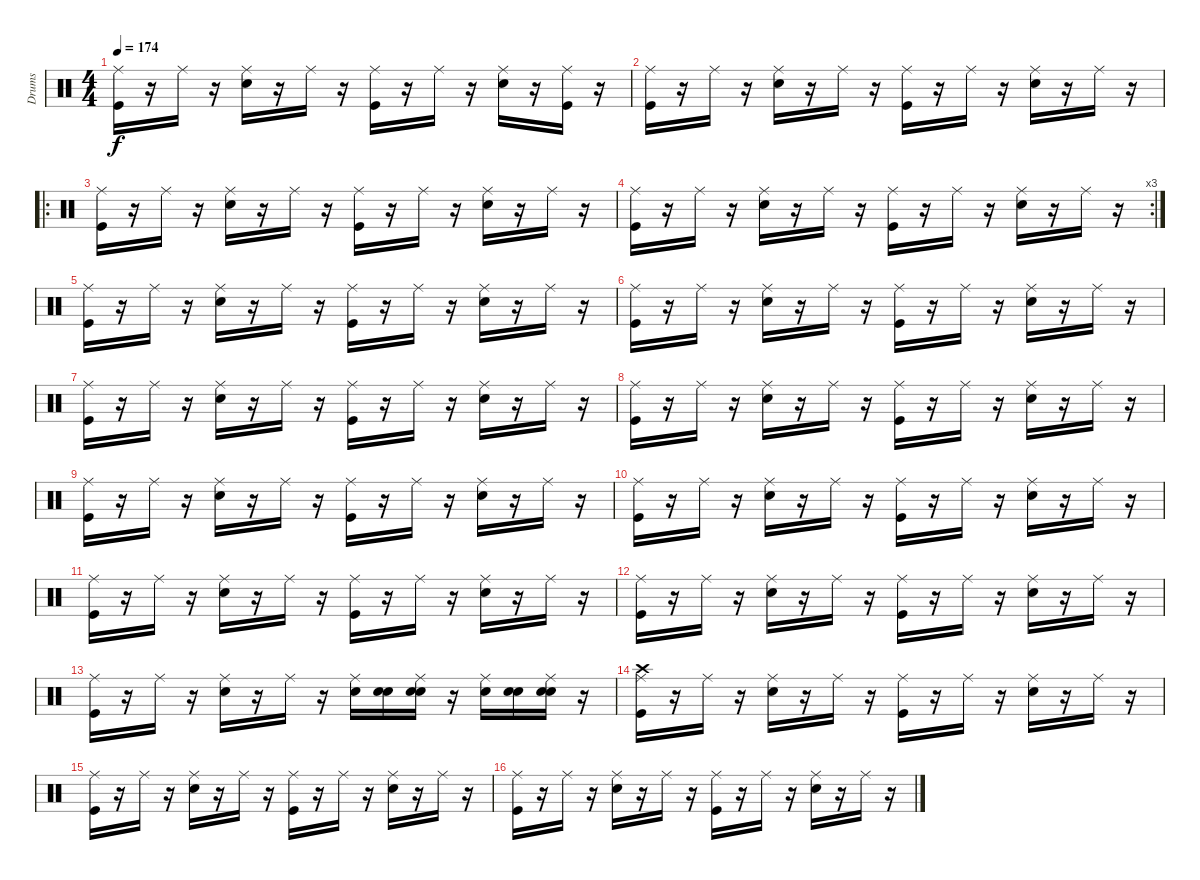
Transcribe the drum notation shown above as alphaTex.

\track ("Drums" "Drums") {instrument percussion}
\staff {score}
\articulation defaults
\ts (4 4)
\tempo 174
\clef neutral
\ks c
("Kick (hit)" "Ride (middle)").16{dy f} r.16 "Ride (middle)".16 r.16 ("Snare (hit) 2" "Ride (middle)").16 r.16 "Ride (middle)".16 r.16 ("Kick (hit)" "Ride (middle)").16 r.16 "Ride (middle)".16 r.16 ("Snare (hit) 2" "Ride (middle)").16 r.16 ("Ride (middle)" "Kick (hit)").16 r.16 |
("Kick (hit)" "Ride (middle)").16 r.16 "Ride (middle)".16 r.16 ("Snare (hit) 2" "Ride (middle)").16 r.16 "Ride (middle)".16 r.16 ("Kick (hit)" "Ride (middle)").16 r.16 "Ride (middle)".16 r.16 ("Snare (hit) 2" "Ride (middle)").16 r.16 "Ride (middle)".16 r.16 |
\ro
("Kick (hit)" "Ride (middle)").16 r.16 "Ride (middle)".16 r.16 ("Snare (hit) 2" "Ride (middle)").16 r.16 "Ride (middle)".16 r.16 ("Kick (hit)" "Ride (middle)").16 r.16 "Ride (middle)".16 r.16 ("Snare (hit) 2" "Ride (middle)").16 r.16 "Ride (middle)".16 r.16 |
\rc 3
("Kick (hit)" "Ride (middle)").16 r.16 "Ride (middle)".16 r.16 ("Snare (hit) 2" "Ride (middle)").16 r.16 "Ride (middle)".16 r.16 ("Kick (hit)" "Ride (middle)").16 r.16 "Ride (middle)".16 r.16 ("Snare (hit) 2" "Ride (middle)").16 r.16 "Ride (middle)".16 r.16 |
("Kick (hit)" "Ride (middle)").16 r.16 "Ride (middle)".16 r.16 ("Snare (hit) 2" "Ride (middle)").16 r.16 "Ride (middle)".16 r.16 ("Kick (hit)" "Ride (middle)").16 r.16 "Ride (middle)".16 r.16 ("Snare (hit) 2" "Ride (middle)").16 r.16 "Ride (middle)".16 r.16 |
("Kick (hit)" "Ride (middle)").16 r.16 "Ride (middle)".16 r.16 ("Snare (hit) 2" "Ride (middle)").16 r.16 "Ride (middle)".16 r.16 ("Kick (hit)" "Ride (middle)").16 r.16 "Ride (middle)".16 r.16 ("Snare (hit) 2" "Ride (middle)").16 r.16 "Ride (middle)".16 r.16 |
("Kick (hit)" "Ride (middle)").16 r.16 "Ride (middle)".16 r.16 ("Snare (hit) 2" "Ride (middle)").16 r.16 "Ride (middle)".16 r.16 ("Kick (hit)" "Ride (middle)").16 r.16 "Ride (middle)".16 r.16 ("Snare (hit) 2" "Ride (middle)").16 r.16 "Ride (middle)".16 r.16 |
("Kick (hit)" "Ride (middle)").16 r.16 "Ride (middle)".16 r.16 ("Snare (hit) 2" "Ride (middle)").16 r.16 "Ride (middle)".16 r.16 ("Kick (hit)" "Ride (middle)").16 r.16 "Ride (middle)".16 r.16 ("Snare (hit) 2" "Ride (middle)").16 r.16 "Ride (middle)".16 r.16 |
("Kick (hit)" "Ride (middle)").16 r.16 "Ride (middle)".16 r.16 ("Snare (hit) 2" "Ride (middle)").16 r.16 "Ride (middle)".16 r.16 ("Kick (hit)" "Ride (middle)").16 r.16 "Ride (middle)".16 r.16 ("Snare (hit) 2" "Ride (middle)").16 r.16 "Ride (middle)".16 r.16 |
("Kick (hit)" "Ride (middle)").16 r.16 "Ride (middle)".16 r.16 ("Snare (hit) 2" "Ride (middle)").16 r.16 "Ride (middle)".16 r.16 ("Kick (hit)" "Ride (middle)").16 r.16 "Ride (middle)".16 r.16 ("Snare (hit) 2" "Ride (middle)").16 r.16 "Ride (middle)".16 r.16 |
("Kick (hit)" "Ride (middle)").16 r.16 "Ride (middle)".16 r.16 ("Snare (hit) 2" "Ride (middle)").16 r.16 "Ride (middle)".16 r.16 ("Kick (hit)" "Ride (middle)").16 r.16 "Ride (middle)".16 r.16 ("Snare (hit) 2" "Ride (middle)").16 r.16 "Ride (middle)".16 r.16 |
("Kick (hit)" "Ride (middle)").16 r.16 "Ride (middle)".16 r.16 ("Snare (hit) 2" "Ride (middle)").16 r.16 "Ride (middle)".16 r.16 ("Kick (hit)" "Ride (middle)").16 r.16 "Ride (middle)".16 r.16 ("Snare (hit) 2" "Ride (middle)").16 r.16 "Ride (middle)".16 r.16 |
("Kick (hit)" "Ride (middle)").16 r.16 "Ride (middle)".16 r.16 ("Snare (hit) 2" "Ride (middle)").16 r.16 "Ride (middle)".16 r.16 ("Snare (hit) 2" "Ride (middle)").16 ("Snare (hit)" "Snare (hit) 2").16 ("Snare (hit)" "Snare (hit) 2" "Ride (middle)").16 r.16 ("Snare (hit) 2" "Ride (middle)").16 ("Snare (hit)" "Snare (hit) 2").16 ("Snare (hit)" "Snare (hit) 2" "Ride (middle)").16 r.16 |
("Ride (middle)" "Crash high (hit)" "Kick (hit)").16 r.16 "Ride (middle)".16 r.16 ("Ride (middle)" "Snare (hit) 2").16 r.16 "Ride (middle)".16 r.16 ("Ride (middle)" "Kick (hit)").16 r.16 "Ride (middle)".16 r.16 ("Ride (middle)" "Snare (hit) 2").16 r.16 "Ride (middle)".16 r.16 |
("Ride (middle)" "Kick (hit)").16 r.16 "Ride (middle)".16 r.16 ("Ride (middle)" "Snare (hit) 2").16 r.16 "Ride (middle)".16 r.16 ("Kick (hit)" "Ride (middle)").16 r.16 "Ride (middle)".16 r.16 ("Ride (middle)" "Snare (hit) 2").16 r.16 "Ride (middle)".16 r.16 |
("Kick (hit)" "Ride (middle)").16 r.16 "Ride (middle)".16 r.16 ("Snare (hit) 2" "Ride (middle)").16 r.16 "Ride (middle)".16 r.16 ("Kick (hit)" "Ride (middle)").16 r.16 "Ride (middle)".16 r.16 ("Snare (hit) 2" "Ride (middle)").16 r.16 "Ride (middle)".16 r.16
